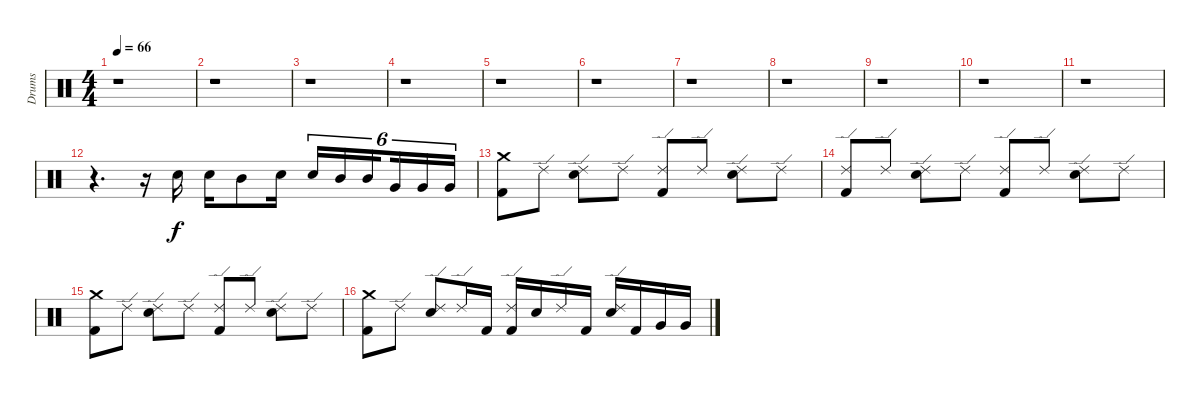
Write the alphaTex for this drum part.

\track ("Drums" "Drums") {instrument percussion}
\staff {score}
\articulation defaults
\ts (4 4)
\tempo 66
\clef neutral
\ks c
r.1{dy f} |
r.1 |
r.1 |
r.1 |
r.1 |
r.1 |
r.1 |
r.1 |
r.1 |
r.1 |
r.1 |
r.4{d} r.16 "Snare (hit) 2".16 "Snare (hit) 2".16 "Mid Tom (hit)".8 "Snare (hit) 2".16 "Snare (hit) 2".16{tu (6 4)} "Mid Tom (hit)".16{tu (6 4)} "Mid Tom (hit)".16{tu (6 4) beam splitsecondary} "Very Low Tom (hit)".16{tu (6 4)} "Very Low Tom (hit)".16{tu (6 4)} "Very Low Tom (hit)".16{tu (6 4)} |
("Kick (hit) 2" "Crash medium (hit)").8 "Ride (edge) 2".8 ("Snare (hit) 2" "Ride (edge) 2").8 "Ride (edge) 2".8 ("Kick (hit) 2" "Ride (edge) 2").8 "Ride (edge) 2".8 ("Snare (hit) 2" "Ride (edge) 2").8 "Ride (edge) 2".8 |
("Ride (edge) 2" "Kick (hit) 2").8 "Ride (edge) 2".8 ("Ride (edge) 2" "Snare (hit) 2").8 "Ride (edge) 2".8 ("Ride (edge) 2" "Kick (hit) 2").8 "Ride (edge) 2".8 ("Ride (edge) 2" "Snare (hit) 2").8 "Ride (edge) 2".8 |
("Crash medium (hit)" "Kick (hit) 2").8 "Ride (edge) 2".8 ("Ride (edge) 2" "Snare (hit) 2").8 "Ride (edge) 2".8 ("Ride (edge) 2" "Kick (hit) 2").8 "Ride (edge) 2".8 ("Ride (edge) 2" "Snare (hit) 2").8 "Ride (edge) 2".8 |
("Kick (hit) 2" "Crash medium (hit)").8 "Ride (edge) 2".8 ("Snare (hit) 2" "Ride (edge) 2").8 "Ride (edge) 2".16 "Kick (hit) 2".16 ("Kick (hit) 2" "Ride (edge) 2").16 "Snare (hit) 2".16 "Ride (edge) 2".16 "Kick (hit) 2".16 ("Snare (hit) 2" "Ride (edge) 2").16 "Kick (hit) 2".16 "Very Low Tom (hit)".16 "Very Low Tom (hit)".16
